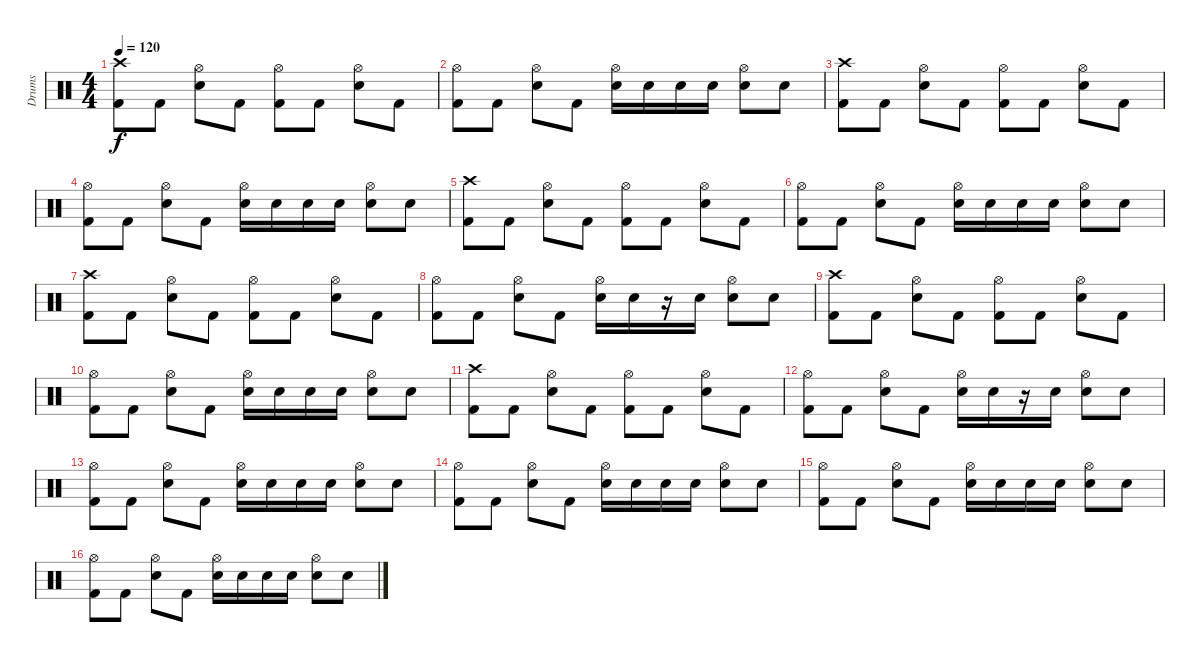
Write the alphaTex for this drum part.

\track ("Drums" "Drums") {instrument percussion}
\staff {score}
\articulation defaults
\ts (4 4)
\tempo 120
\clef neutral
\ks c
("Crash high (hit)" "Kick (hit) 2").8{dy f} "Kick (hit) 2".8 ("Hi-Hat (open)" "Electric Snare (hit)").8 "Kick (hit) 2".8 ("Hi-Hat (open)" "Kick (hit) 2").8 "Kick (hit) 2".8 ("Hi-Hat (open)" "Electric Snare (hit)").8 "Kick (hit) 2".8 |
("Hi-Hat (open)" "Kick (hit) 2").8 "Kick (hit) 2".8 ("Hi-Hat (open)" "Electric Snare (hit)").8 "Kick (hit) 2".8 ("Hi-Hat (open)" "Electric Snare (hit)").16 "Electric Snare (hit)".16 "Electric Snare (hit)".16 "Electric Snare (hit)".16 ("Hi-Hat (open)" "Electric Snare (hit)").8 "Electric Snare (hit)".8 |
("Crash high (hit)" "Kick (hit) 2").8 "Kick (hit) 2".8 ("Hi-Hat (open)" "Electric Snare (hit)").8 "Kick (hit) 2".8 ("Hi-Hat (open)" "Kick (hit) 2").8 "Kick (hit) 2".8 ("Hi-Hat (open)" "Electric Snare (hit)").8 "Kick (hit) 2".8 |
("Hi-Hat (open)" "Kick (hit) 2").8 "Kick (hit) 2".8 ("Hi-Hat (open)" "Electric Snare (hit)").8 "Kick (hit) 2".8 ("Hi-Hat (open)" "Electric Snare (hit)").16 "Electric Snare (hit)".16 "Electric Snare (hit)".16 "Electric Snare (hit)".16 ("Hi-Hat (open)" "Electric Snare (hit)").8 "Electric Snare (hit)".8 |
("Crash high (hit)" "Kick (hit) 2").8 "Kick (hit) 2".8 ("Hi-Hat (open)" "Electric Snare (hit)").8 "Kick (hit) 2".8 ("Hi-Hat (open)" "Kick (hit) 2").8 "Kick (hit) 2".8 ("Hi-Hat (open)" "Electric Snare (hit)").8 "Kick (hit) 2".8 |
("Hi-Hat (open)" "Kick (hit) 2").8 "Kick (hit) 2".8 ("Hi-Hat (open)" "Electric Snare (hit)").8 "Kick (hit) 2".8 ("Hi-Hat (open)" "Electric Snare (hit)").16 "Electric Snare (hit)".16 "Electric Snare (hit)".16 "Electric Snare (hit)".16 ("Hi-Hat (open)" "Electric Snare (hit)").8 "Electric Snare (hit)".8 |
("Crash high (hit)" "Kick (hit) 2").8 "Kick (hit) 2".8 ("Hi-Hat (open)" "Electric Snare (hit)").8 "Kick (hit) 2".8 ("Hi-Hat (open)" "Kick (hit) 2").8 "Kick (hit) 2".8 ("Hi-Hat (open)" "Electric Snare (hit)").8 "Kick (hit) 2".8 |
("Hi-Hat (open)" "Kick (hit) 2").8 "Kick (hit) 2".8 ("Hi-Hat (open)" "Electric Snare (hit)").8 "Kick (hit) 2".8 ("Hi-Hat (open)" "Electric Snare (hit)").16 "Electric Snare (hit)".16 r.16 "Electric Snare (hit)".16 ("Hi-Hat (open)" "Electric Snare (hit)").8 "Electric Snare (hit)".8 |
("Crash high (hit)" "Kick (hit) 2").8 "Kick (hit) 2".8 ("Hi-Hat (open)" "Electric Snare (hit)").8 "Kick (hit) 2".8 ("Hi-Hat (open)" "Kick (hit) 2").8 "Kick (hit) 2".8 ("Hi-Hat (open)" "Electric Snare (hit)").8 "Kick (hit) 2".8 |
("Hi-Hat (open)" "Kick (hit) 2").8 "Kick (hit) 2".8 ("Hi-Hat (open)" "Electric Snare (hit)").8 "Kick (hit) 2".8 ("Hi-Hat (open)" "Electric Snare (hit)").16 "Electric Snare (hit)".16 "Electric Snare (hit)".16 "Electric Snare (hit)".16 ("Hi-Hat (open)" "Electric Snare (hit)").8 "Electric Snare (hit)".8 |
("Crash high (hit)" "Kick (hit) 2").8 "Kick (hit) 2".8 ("Hi-Hat (open)" "Electric Snare (hit)").8 "Kick (hit) 2".8 ("Hi-Hat (open)" "Kick (hit) 2").8 "Kick (hit) 2".8 ("Hi-Hat (open)" "Electric Snare (hit)").8 "Kick (hit) 2".8 |
("Hi-Hat (open)" "Kick (hit) 2").8 "Kick (hit) 2".8 ("Hi-Hat (open)" "Electric Snare (hit)").8 "Kick (hit) 2".8 ("Hi-Hat (open)" "Electric Snare (hit)").16 "Electric Snare (hit)".16 r.16 "Electric Snare (hit)".16 ("Hi-Hat (open)" "Electric Snare (hit)").8 "Electric Snare (hit)".8 |
("Hi-Hat (open)" "Kick (hit) 2").8 "Kick (hit) 2".8 ("Hi-Hat (open)" "Electric Snare (hit)").8 "Kick (hit) 2".8 ("Hi-Hat (open)" "Electric Snare (hit)").16 "Electric Snare (hit)".16 "Electric Snare (hit)".16 "Electric Snare (hit)".16 ("Hi-Hat (open)" "Electric Snare (hit)").8 "Electric Snare (hit)".8 |
("Hi-Hat (open)" "Kick (hit) 2").8 "Kick (hit) 2".8 ("Hi-Hat (open)" "Electric Snare (hit)").8 "Kick (hit) 2".8 ("Hi-Hat (open)" "Electric Snare (hit)").16 "Electric Snare (hit)".16 "Electric Snare (hit)".16 "Electric Snare (hit)".16 ("Hi-Hat (open)" "Electric Snare (hit)").8 "Electric Snare (hit)".8 |
("Hi-Hat (open)" "Kick (hit) 2").8 "Kick (hit) 2".8 ("Hi-Hat (open)" "Electric Snare (hit)").8 "Kick (hit) 2".8 ("Hi-Hat (open)" "Electric Snare (hit)").16 "Electric Snare (hit)".16 "Electric Snare (hit)".16 "Electric Snare (hit)".16 ("Hi-Hat (open)" "Electric Snare (hit)").8 "Electric Snare (hit)".8 |
("Hi-Hat (open)" "Kick (hit) 2").8 "Kick (hit) 2".8 ("Hi-Hat (open)" "Electric Snare (hit)").8 "Kick (hit) 2".8 ("Hi-Hat (open)" "Electric Snare (hit)").16 "Electric Snare (hit)".16 "Electric Snare (hit)".16 "Electric Snare (hit)".16 ("Hi-Hat (open)" "Electric Snare (hit)").8 "Electric Snare (hit)".8
